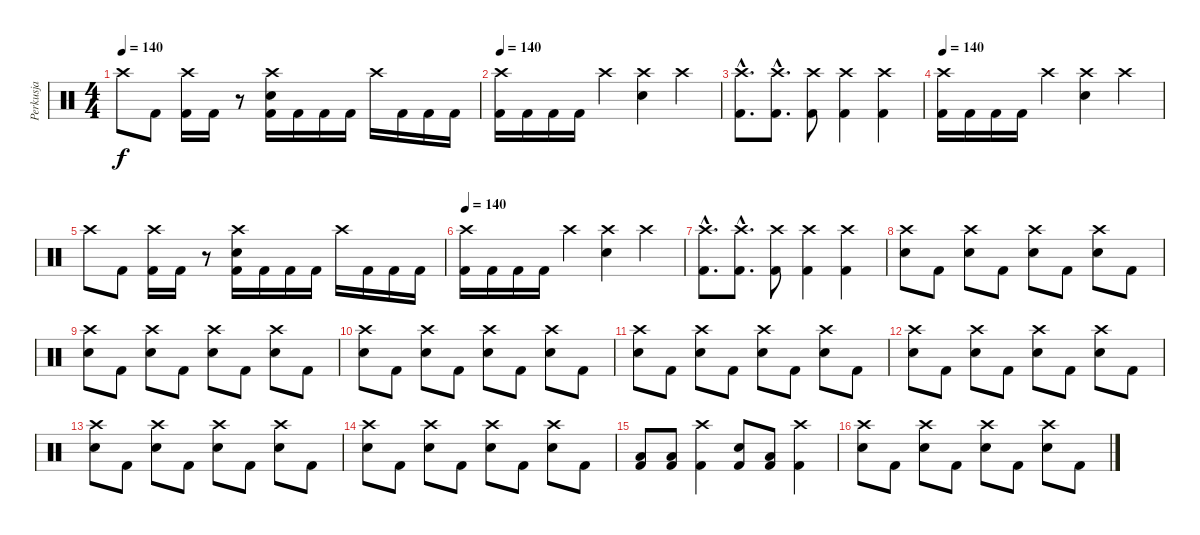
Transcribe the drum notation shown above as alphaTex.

\track ("Perkusja" "Perkusja") {instrument percussion}
\staff {score}
\articulation defaults
\ts (4 4)
\tempo 140
\clef neutral
\ks c "Crash high (hit)".8{dy f} "Kick (hit) 2".8
("Crash high (hit)" "Kick (hit) 2").16 "Kick (hit) 2".16 r.8 ("Crash high (hit)" "Electric Snare (hit)" "Kick (hit) 2").16 "Kick (hit) 2".16 "Kick (hit) 2".16 "Kick (hit) 2".16 "Crash high (hit)".16 "Kick (hit) 2".16 "Kick (hit) 2".16 "Kick (hit) 2".16 |
\tempo 140
("Crash high (hit)" "Kick (hit) 2").16 "Kick (hit) 2".16 "Kick (hit) 2".16 "Kick (hit) 2".16 "Crash high (hit)".4 ("Crash high (hit)" "Electric Snare (hit)").4 "Crash high (hit)".4 |
("Crash high (hit)"{hac} "Kick (hit) 2"{hac}).8{d} ("Crash high (hit)"{hac} "Kick (hit) 2"{hac}).8{d} ("Crash high (hit)" "Kick (hit) 2").8 ("Crash high (hit)" "Kick (hit) 2").4 ("Crash high (hit)" "Kick (hit) 2").4 |
\tempo 140
("Crash high (hit)" "Kick (hit) 2").16 "Kick (hit) 2".16 "Kick (hit) 2".16 "Kick (hit) 2".16 "Crash high (hit)".4 ("Crash high (hit)" "Electric Snare (hit)").4 "Crash high (hit)".4 |
"Crash high (hit)".8 "Kick (hit) 2".8 ("Crash high (hit)" "Kick (hit) 2").16 "Kick (hit) 2".16 r.8 ("Crash high (hit)" "Electric Snare (hit)" "Kick (hit) 2").16 "Kick (hit) 2".16 "Kick (hit) 2".16 "Kick (hit) 2".16 "Crash high (hit)".16 "Kick (hit) 2".16 "Kick (hit) 2".16 "Kick (hit) 2".16 |
\tempo 140
("Crash high (hit)" "Kick (hit) 2").16 "Kick (hit) 2".16 "Kick (hit) 2".16 "Kick (hit) 2".16 "Crash high (hit)".4 ("Crash high (hit)" "Electric Snare (hit)").4 "Crash high (hit)".4 |
("Crash high (hit)"{hac} "Kick (hit) 2"{hac}).8{d} ("Crash high (hit)"{hac} "Kick (hit) 2"{hac}).8{d} ("Crash high (hit)" "Kick (hit) 2").8 ("Crash high (hit)" "Kick (hit) 2").4 ("Crash high (hit)" "Kick (hit) 2").4 |
("Crash high (hit)" "Electric Snare (hit)").8 "Kick (hit) 2".8 ("Crash high (hit)" "Electric Snare (hit)").8 "Kick (hit) 2".8 ("Crash high (hit)" "Electric Snare (hit)").8 "Kick (hit) 2".8 ("Crash high (hit)" "Electric Snare (hit)").8 "Kick (hit) 2".8 |
("Crash high (hit)" "Electric Snare (hit)").8 "Kick (hit) 2".8 ("Crash high (hit)" "Electric Snare (hit)").8 "Kick (hit) 2".8 ("Crash high (hit)" "Electric Snare (hit)").8 "Kick (hit) 2".8 ("Crash high (hit)" "Electric Snare (hit)").8 "Kick (hit) 2".8 |
("Crash high (hit)" "Electric Snare (hit)").8 "Kick (hit) 2".8 ("Crash high (hit)" "Electric Snare (hit)").8 "Kick (hit) 2".8 ("Crash high (hit)" "Electric Snare (hit)").8 "Kick (hit) 2".8 ("Crash high (hit)" "Electric Snare (hit)").8 "Kick (hit) 2".8 |
("Crash high (hit)" "Electric Snare (hit)").8 "Kick (hit) 2".8 ("Crash high (hit)" "Electric Snare (hit)").8 "Kick (hit) 2".8 ("Crash high (hit)" "Electric Snare (hit)").8 "Kick (hit) 2".8 ("Crash high (hit)" "Electric Snare (hit)").8 "Kick (hit) 2".8 |
("Crash high (hit)" "Electric Snare (hit)").8 "Kick (hit) 2".8 ("Crash high (hit)" "Electric Snare (hit)").8 "Kick (hit) 2".8 ("Crash high (hit)" "Electric Snare (hit)").8 "Kick (hit) 2".8 ("Crash high (hit)" "Electric Snare (hit)").8 "Kick (hit) 2".8 |
("Crash high (hit)" "Electric Snare (hit)").8 "Kick (hit) 2".8 ("Crash high (hit)" "Electric Snare (hit)").8 "Kick (hit) 2".8 ("Crash high (hit)" "Electric Snare (hit)").8 "Kick (hit) 2".8 ("Crash high (hit)" "Electric Snare (hit)").8 "Kick (hit) 2".8 |
("Crash high (hit)" "Electric Snare (hit)").8 "Kick (hit) 2".8 ("Crash high (hit)" "Electric Snare (hit)").8 "Kick (hit) 2".8 ("Crash high (hit)" "Electric Snare (hit)").8 "Kick (hit) 2".8 ("Crash high (hit)" "Electric Snare (hit)").8 "Kick (hit) 2".8 |
("Low Floor Tom (hit)" "Kick (hit) 2").8 ("Low Floor Tom (hit)" "Kick (hit) 2").8 ("Crash high (hit)" "Kick (hit) 2").4 ("Electric Snare (hit)" "Kick (hit) 2").8 ("Low Floor Tom (hit)" "Kick (hit) 2").8 ("Crash high (hit)" "Kick (hit) 2").4 |
("Crash high (hit)" "Electric Snare (hit)").8 "Kick (hit) 2".8 ("Crash high (hit)" "Electric Snare (hit)").8 "Kick (hit) 2".8 ("Crash high (hit)" "Electric Snare (hit)").8 "Kick (hit) 2".8 ("Crash high (hit)" "Electric Snare (hit)").8 "Kick (hit) 2".8
